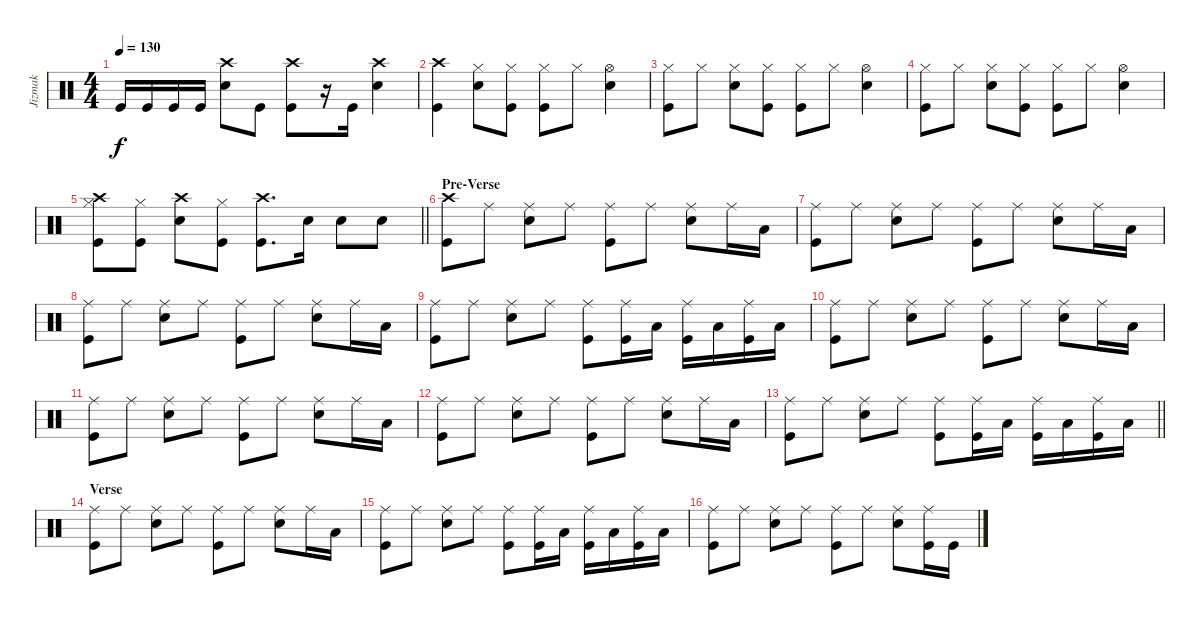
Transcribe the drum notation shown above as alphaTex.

\track ("Jizmak" "Jizmak") {instrument percussion}
\staff {score}
\articulation defaults
\ts (4 4)
\tempo 130
\clef neutral
\ks c "Kick (hit)".16{dy f} "Kick (hit)".16 "Kick (hit)".16 "Kick (hit)".16
("Crash high (hit)" "Snare (hit) 2").8 "Kick (hit)".8 ("Crash high (hit)" "Kick (hit)").8 r.16 "Kick (hit)".16 ("Crash high (hit)" "Snare (hit) 2").4 |
("Crash high (hit)" "Kick (hit)").4 ("Hi-Hat (closed)" "Snare (hit) 2").8 ("Hi-Hat (closed)" "Kick (hit)").8 ("Hi-Hat (closed)" "Kick (hit)").8 "Hi-Hat (closed)".8 ("Hi-Hat (open)" "Snare (hit) 2").4 |
("Hi-Hat (closed)" "Kick (hit)").8 "Hi-Hat (closed)".8 ("Hi-Hat (closed)" "Snare (hit) 2").8 ("Hi-Hat (closed)" "Kick (hit)").8 ("Hi-Hat (closed)" "Kick (hit)").8 "Hi-Hat (closed)".8 ("Hi-Hat (open)" "Snare (hit) 2").4 |
("Hi-Hat (closed)" "Kick (hit)").8 "Hi-Hat (closed)".8 ("Hi-Hat (closed)" "Snare (hit) 2").8 ("Hi-Hat (closed)" "Kick (hit)").8 ("Hi-Hat (closed)" "Kick (hit)").8 "Hi-Hat (closed)".8 ("Hi-Hat (open)" "Snare (hit) 2").4 |
\barLineRight lightlight
("Crash high (hit)" "Hi-Hat (closed)" "Kick (hit)").8 ("Hi-Hat (closed)" "Kick (hit)").8 ("Crash high (hit)" "Snare (hit) 2").8 ("Hi-Hat (closed)" "Kick (hit)").8 ("Crash high (hit)" "Kick (hit)").8{d} "Snare (hit) 2".16 "Snare (hit) 2".8 "Snare (hit) 2".8 |
\section ("" "Pre-Verse")
("Crash high (hit)" "Kick (hit)").8 "Ride (middle)".8 ("Ride (middle)" "Snare (hit) 2").8 "Ride (middle)".8 ("Ride (middle)" "Kick (hit)").8 "Ride (middle)".8 ("Ride (middle)" "Snare (hit) 2").8 "Ride (middle)".16 "Low Tom (hit)".16 |
("Ride (middle)" "Kick (hit)").8 "Ride (middle)".8 ("Ride (middle)" "Snare (hit) 2").8 "Ride (middle)".8 ("Ride (middle)" "Kick (hit)").8 "Ride (middle)".8 ("Ride (middle)" "Snare (hit) 2").8 "Ride (middle)".16 "Low Tom (hit)".16 |
("Ride (middle)" "Kick (hit)").8 "Ride (middle)".8 ("Ride (middle)" "Snare (hit) 2").8 "Ride (middle)".8 ("Ride (middle)" "Kick (hit)").8 "Ride (middle)".8 ("Ride (middle)" "Snare (hit) 2").8 "Ride (middle)".16 "Low Tom (hit)".16 |
("Ride (middle)" "Kick (hit)").8 "Ride (middle)".8 ("Ride (middle)" "Snare (hit) 2").8 "Ride (middle)".8 ("Ride (middle)" "Kick (hit)").8 ("Ride (middle)" "Kick (hit)").16 "Low Tom (hit)".16 ("Ride (middle)" "Kick (hit)").16 "Low Tom (hit)".16 ("Ride (middle)" "Kick (hit)").16 "Low Tom (hit)".16 |
("Ride (middle)" "Kick (hit)").8 "Ride (middle)".8 ("Ride (middle)" "Snare (hit) 2").8 "Ride (middle)".8 ("Ride (middle)" "Kick (hit)").8 "Ride (middle)".8 ("Ride (middle)" "Snare (hit) 2").8 "Ride (middle)".16 "Low Tom (hit)".16 |
("Ride (middle)" "Kick (hit)").8 "Ride (middle)".8 ("Ride (middle)" "Snare (hit) 2").8 "Ride (middle)".8 ("Ride (middle)" "Kick (hit)").8 "Ride (middle)".8 ("Ride (middle)" "Snare (hit) 2").8 "Ride (middle)".16 "Low Tom (hit)".16 |
("Ride (middle)" "Kick (hit)").8 "Ride (middle)".8 ("Ride (middle)" "Snare (hit) 2").8 "Ride (middle)".8 ("Ride (middle)" "Kick (hit)").8 "Ride (middle)".8 ("Ride (middle)" "Snare (hit) 2").8 "Ride (middle)".16 "Low Tom (hit)".16 |
\barLineRight lightlight
("Ride (middle)" "Kick (hit)").8 "Ride (middle)".8 ("Ride (middle)" "Snare (hit) 2").8 "Ride (middle)".8 ("Ride (middle)" "Kick (hit)").8 ("Ride (middle)" "Kick (hit)").16 "Low Tom (hit)".16 ("Ride (middle)" "Kick (hit)").16 "Low Tom (hit)".16 ("Ride (middle)" "Kick (hit)").16 "Low Tom (hit)".16 |
\section ("" "Verse")
("Ride (middle)" "Kick (hit)").8 "Ride (middle)".8 ("Ride (middle)" "Snare (hit) 2").8 "Ride (middle)".8 ("Ride (middle)" "Kick (hit)").8 "Ride (middle)".8 ("Ride (middle)" "Snare (hit) 2").8 "Ride (middle)".16 "Low Tom (hit)".16 |
("Ride (middle)" "Kick (hit)").8 "Ride (middle)".8 ("Ride (middle)" "Snare (hit) 2").8 "Ride (middle)".8 ("Ride (middle)" "Kick (hit)").8 ("Ride (middle)" "Kick (hit)").16 "Low Tom (hit)".16 ("Ride (middle)" "Kick (hit)").16 "Low Tom (hit)".16 ("Ride (middle)" "Kick (hit)").16 "Low Tom (hit)".16 |
("Ride (middle)" "Kick (hit)").8 "Ride (middle)".8 ("Ride (middle)" "Snare (hit) 2").8 "Ride (middle)".8 ("Ride (middle)" "Kick (hit)").8 "Ride (middle)".8 ("Ride (middle)" "Snare (hit) 2").8 ("Ride (middle)" "Kick (hit)").16 "Kick (hit)".16
